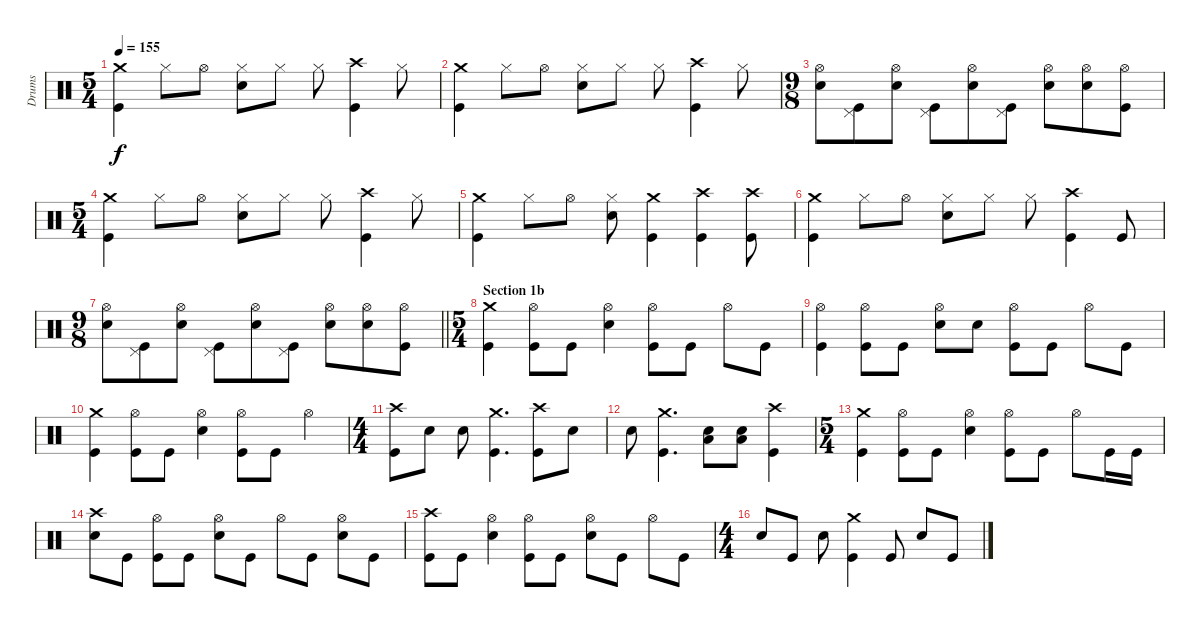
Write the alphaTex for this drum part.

\track ("Drums" "Drums") {instrument percussion}
\staff {score}
\articulation defaults
\ts (5 4)
\tempo 155
\clef neutral
\ks c
("Crash medium (hit)" "Kick (hit)").4{dy f} "Hi-Hat (closed)".8 "Hi-Hat (open)".8 ("Hi-Hat (closed)" "Snare (hit) 2").8 "Hi-Hat (closed)".8 "Hi-Hat (closed)".8 ("Crash high (hit)" "Kick (hit)").4 "Hi-Hat (closed)".8 |
("Crash medium (hit)" "Kick (hit)").4 "Hi-Hat (closed)".8 "Hi-Hat (open)".8 ("Hi-Hat (closed)" "Snare (hit) 2").8 "Hi-Hat (closed)".8 "Hi-Hat (closed)".8 ("Crash high (hit)" "Kick (hit)").4 "Hi-Hat (closed)".8 |
\ts (9 8)
("Hi-Hat (open)" "Snare (hit) 2").8 ("Pedal Hi-Hat (hit)" "Kick (hit)").8 ("Hi-Hat (open)" "Snare (hit) 2").8 ("Pedal Hi-Hat (hit)" "Kick (hit)").8 ("Hi-Hat (open)" "Snare (hit) 2").8 ("Pedal Hi-Hat (hit)" "Kick (hit)").8 ("Hi-Hat (open)" "Snare (hit) 2").8 ("Hi-Hat (open)" "Snare (hit) 2").8 ("Hi-Hat (open)" "Kick (hit)").8 |
\ts (5 4)
("Crash medium (hit)" "Kick (hit)").4 "Hi-Hat (closed)".8 "Hi-Hat (open)".8 ("Hi-Hat (closed)" "Snare (hit) 2").8 "Hi-Hat (closed)".8 "Hi-Hat (closed)".8 ("Crash high (hit)" "Kick (hit)").4 "Hi-Hat (closed)".8 |
("Crash medium (hit)" "Kick (hit)").4 "Hi-Hat (closed)".8 "Hi-Hat (open)".8 ("Hi-Hat (closed)" "Snare (hit) 2").8 ("Crash medium (hit)" "Kick (hit)").4 ("Crash high (hit)" "Kick (hit)").4 ("Crash high (hit)" "Kick (hit)").8 |
("Crash medium (hit)" "Kick (hit)").4 "Hi-Hat (closed)".8 "Hi-Hat (open)".8 ("Hi-Hat (closed)" "Snare (hit) 2").8 "Hi-Hat (closed)".8 "Hi-Hat (closed)".8 ("Crash high (hit)" "Kick (hit)").4 "Kick (hit)".8 |
\ts (9 8)
\barLineRight lightlight
("Hi-Hat (open)" "Snare (hit) 2").8 ("Pedal Hi-Hat (hit)" "Kick (hit)").8 ("Hi-Hat (open)" "Snare (hit) 2").8 ("Pedal Hi-Hat (hit)" "Kick (hit)").8 ("Hi-Hat (open)" "Snare (hit) 2").8 ("Pedal Hi-Hat (hit)" "Kick (hit)").8 ("Hi-Hat (open)" "Snare (hit) 2").8 ("Hi-Hat (open)" "Snare (hit) 2").8 ("Hi-Hat (open)" "Kick (hit)").8 |
\ts (5 4)
\section ("" "Section 1b")
("Crash medium (hit)" "Kick (hit)").4 ("Hi-Hat (open)" "Kick (hit)").8 "Kick (hit)".8 ("Hi-Hat (open)" "Snare (hit) 2").4 ("Hi-Hat (open)" "Kick (hit)").8 "Kick (hit)".8 "Hi-Hat (open)".8 "Kick (hit)".8 |
("Hi-Hat (open)" "Kick (hit)").4 ("Hi-Hat (open)" "Kick (hit)").8 "Kick (hit)".8 ("Hi-Hat (open)" "Snare (hit) 2").8 "Snare (hit) 2".8 ("Hi-Hat (open)" "Kick (hit)").8 "Kick (hit)".8 "Hi-Hat (open)".8 "Kick (hit)".8 |
("Crash medium (hit)" "Kick (hit)").4 ("Hi-Hat (open)" "Kick (hit)").8 "Kick (hit)".8 ("Hi-Hat (open)" "Snare (hit) 2").4 ("Hi-Hat (open)" "Kick (hit)").8 "Kick (hit)".8 "Hi-Hat (open)".4 |
\ts (4 4)
("Crash high (hit)" "Kick (hit)").8 "Snare (hit) 2".8 "Snare (hit) 2".8 ("Crash medium (hit)" "Kick (hit)").4{d} ("Crash high (hit)" "Kick (hit)").8 "Snare (hit) 2".8 |
"Snare (hit) 2".8 ("Crash medium (hit)" "Kick (hit)").4{d} ("Low Floor Tom (hit)" "Snare (hit) 2").8 ("Low Floor Tom (hit)" "Snare (hit) 2").8 ("Crash high (hit)" "Kick (hit)").4 |
\ts (5 4)
("Crash medium (hit)" "Kick (hit)").4 ("Hi-Hat (open)" "Kick (hit)").8 "Kick (hit)".8 ("Hi-Hat (open)" "Snare (hit) 2").4 ("Hi-Hat (open)" "Kick (hit)").8 "Kick (hit)".8 "Hi-Hat (open)".8 "Kick (hit)".16 "Kick (hit)".16 |
("Crash high (hit)" "Snare (hit) 2").8 "Kick (hit)".8 ("Hi-Hat (open)" "Kick (hit)").8 "Kick (hit)".8 ("Hi-Hat (open)" "Snare (hit) 2").8 "Kick (hit)".8 "Hi-Hat (open)".8 "Kick (hit)".8 ("Hi-Hat (open)" "Snare (hit) 2").8 "Kick (hit)".8 |
("Crash high (hit)" "Kick (hit)").8 "Kick (hit)".8 ("Hi-Hat (open)" "Snare (hit) 2").4 ("Hi-Hat (open)" "Kick (hit)").8 "Kick (hit)".8 ("Hi-Hat (open)" "Snare (hit) 2").8 "Kick (hit)".8 "Hi-Hat (open)".8 "Kick (hit)".8 |
\ts (4 4)
"Snare (hit) 2".8 "Kick (hit)".8 "Snare (hit) 2".8 ("Crash medium (hit)" "Kick (hit)").4 "Kick (hit)".8 "Snare (hit) 2".8 "Kick (hit)".8
